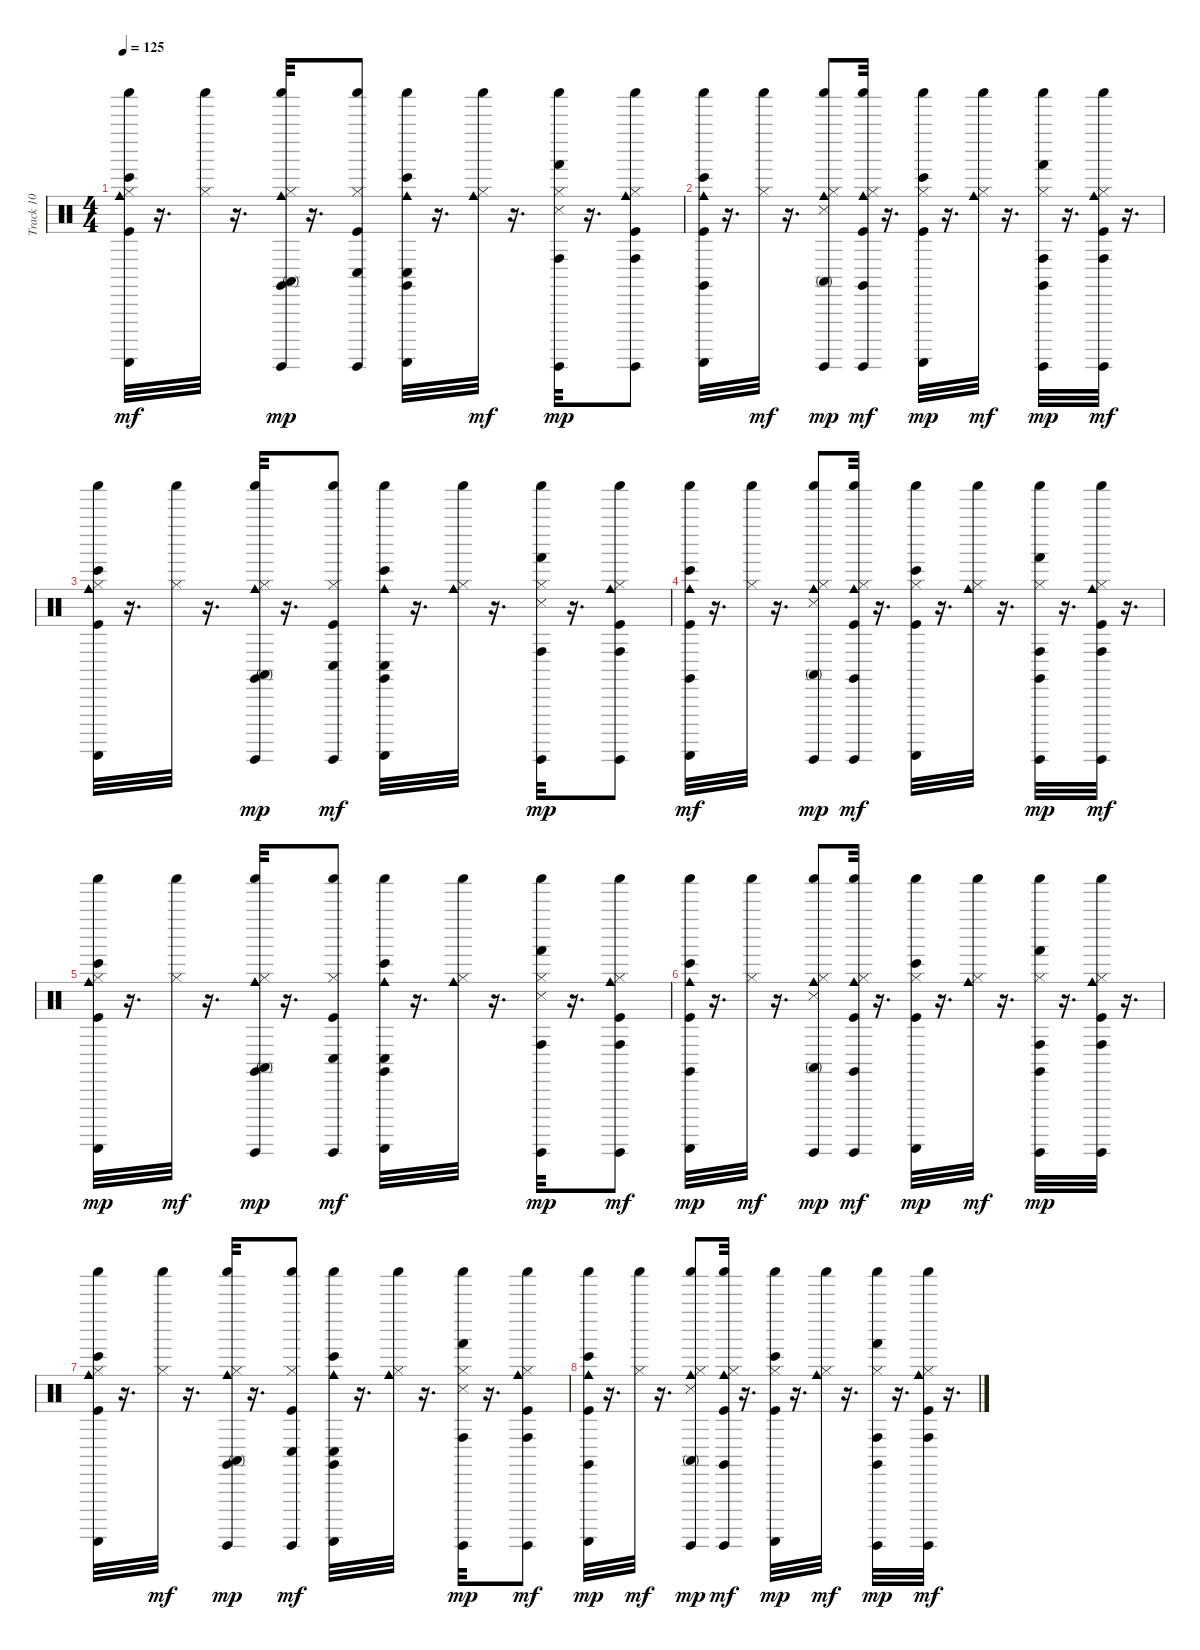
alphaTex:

\track ("Track 10" "Track 10") {instrument percussion}
\staff {score}
\articulation defaults
\ts (4 4)
\tempo 125
\clef neutral
\ks c
("Shaker (hit)" "Bongo High (hit)" "Cowbell medium (hit)" "Guiro (scrap-return)" "Kick (hit)" "Hi-Hat (closed)").32{dy mf} r.16{d} ("Shaker (hit)" "Hi-Hat (closed)").32 r.16{d} ("Shaker (hit)" "Claves (hit)" "Conga high (mute)" "Cowbell medium (hit)" "Guiro (hit)" "Hi-Hat (closed)").32{dy mp} r.16{d} ("Shaker (hit)" "Conga low (hit)" "Guiro (hit)" "Kick (hit)" "Hi-Hat (closed)").8 ("Shaker (hit)" "Claves (hit)" "Conga low (hit)" "Bongo High (hit)" "Cowbell medium (hit)" "Guiro (scrap-return)").32 r.16{d} ("Shaker (hit)" "Cowbell medium (hit)" "Hi-Hat (closed)").32{dy mf} r.16{d} ("Shaker (hit)" "Conga high (hit)" "Hand (hit)" "Guiro (hit)" "Hi-Hat (closed)" "Snare (side stick) 3").32{dy mp} r.16{d} ("Shaker (hit)" "Conga high (hit)" "Cowbell medium (hit)" "Guiro (hit)" "Kick (hit)" "Hi-Hat (closed)").8 |
("Shaker (hit)" "Claves (hit)" "Bongo High (hit)" "Cowbell medium (hit)" "Guiro (scrap-return)" "Kick (hit)").32 r.16{d} ("Shaker (hit)" "Hi-Hat (closed)").32{dy mf} r.16{d} ("Shaker (hit)" "Conga high (mute)" "Cowbell medium (hit)" "Guiro (hit)" "Hi-Hat (closed)" "Snare (side stick) 3").8{dy mp} ("Shaker (hit)" "Claves (hit)" "Cowbell medium (hit)" "Guiro (hit)" "Kick (hit)" "Hi-Hat (closed)").32{dy mf} r.16{d} ("Shaker (hit)" "Bongo High (hit)" "Guiro (scrap-return)" "Kick (hit)" "Hi-Hat (closed)").32{dy mp} r.16{d} ("Shaker (hit)" "Cowbell medium (hit)" "Hi-Hat (closed)").32{dy mf} r.16{d} ("Shaker (hit)" "Claves (hit)" "Conga high (hit)" "Hand (hit)" "Guiro (hit)" "Hi-Hat (closed)").32{dy mp} r.16{d} ("Shaker (hit)" "Conga high (hit)" "Cowbell medium (hit)" "Guiro (hit)" "Kick (hit)" "Hi-Hat (closed)").32{dy mf} r.16{d} |
("Shaker (hit)" "Bongo High (hit)" "Cowbell medium (hit)" "Guiro (scrap-return)" "Kick (hit)" "Hi-Hat (closed)").32 r.16{d} ("Shaker (hit)" "Hi-Hat (closed)").32 r.16{d} ("Shaker (hit)" "Claves (hit)" "Conga high (mute)" "Cowbell medium (hit)" "Guiro (hit)" "Hi-Hat (closed)").32{dy mp} r.16{d} ("Shaker (hit)" "Conga low (hit)" "Guiro (hit)" "Kick (hit)" "Hi-Hat (closed)").8{dy mf} ("Shaker (hit)" "Claves (hit)" "Conga low (hit)" "Bongo High (hit)" "Cowbell medium (hit)" "Guiro (scrap-return)").32 r.16{d} ("Shaker (hit)" "Cowbell medium (hit)" "Hi-Hat (closed)").32 r.16{d} ("Shaker (hit)" "Conga high (hit)" "Hand (hit)" "Guiro (hit)" "Hi-Hat (closed)" "Snare (side stick) 3").32{dy mp} r.16{d} ("Shaker (hit)" "Conga high (hit)" "Cowbell medium (hit)" "Guiro (hit)" "Kick (hit)" "Hi-Hat (closed)").8 |
("Shaker (hit)" "Claves (hit)" "Bongo High (hit)" "Cowbell medium (hit)" "Guiro (scrap-return)" "Kick (hit)").32{dy mf} r.16{d} ("Shaker (hit)" "Hi-Hat (closed)").32 r.16{d} ("Shaker (hit)" "Conga high (mute)" "Cowbell medium (hit)" "Guiro (hit)" "Hi-Hat (closed)" "Snare (side stick) 3").8{dy mp} ("Shaker (hit)" "Claves (hit)" "Cowbell medium (hit)" "Guiro (hit)" "Kick (hit)" "Hi-Hat (closed)").32{dy mf} r.16{d} ("Shaker (hit)" "Bongo High (hit)" "Guiro (scrap-return)" "Kick (hit)" "Hi-Hat (closed)").32 r.16{d} ("Shaker (hit)" "Cowbell medium (hit)" "Hi-Hat (closed)").32 r.16{d} ("Shaker (hit)" "Claves (hit)" "Conga high (hit)" "Hand (hit)" "Guiro (hit)" "Hi-Hat (closed)").32{dy mp} r.16{d} ("Shaker (hit)" "Conga high (hit)" "Cowbell medium (hit)" "Guiro (hit)" "Kick (hit)" "Hi-Hat (closed)").32{dy mf} r.16{d} |
("Shaker (hit)" "Bongo High (hit)" "Cowbell medium (hit)" "Guiro (scrap-return)" "Kick (hit)" "Hi-Hat (closed)").32{dy mp} r.16{d} ("Shaker (hit)" "Hi-Hat (closed)").32{dy mf} r.16{d} ("Shaker (hit)" "Claves (hit)" "Conga high (mute)" "Cowbell medium (hit)" "Guiro (hit)" "Hi-Hat (closed)").32{dy mp} r.16{d} ("Shaker (hit)" "Conga low (hit)" "Guiro (hit)" "Kick (hit)" "Hi-Hat (closed)").8{dy mf} ("Shaker (hit)" "Claves (hit)" "Conga low (hit)" "Bongo High (hit)" "Cowbell medium (hit)" "Guiro (scrap-return)").32 r.16{d} ("Shaker (hit)" "Cowbell medium (hit)" "Hi-Hat (closed)").32 r.16{d} ("Shaker (hit)" "Conga high (hit)" "Hand (hit)" "Guiro (hit)" "Hi-Hat (closed)" "Snare (side stick) 3").32{dy mp} r.16{d} ("Shaker (hit)" "Conga high (hit)" "Cowbell medium (hit)" "Guiro (hit)" "Kick (hit)" "Hi-Hat (closed)").8{dy mf} |
("Shaker (hit)" "Claves (hit)" "Bongo High (hit)" "Cowbell medium (hit)" "Guiro (scrap-return)" "Kick (hit)").32{dy mp} r.16{d} ("Shaker (hit)" "Hi-Hat (closed)").32{dy mf} r.16{d} ("Shaker (hit)" "Conga high (mute)" "Cowbell medium (hit)" "Guiro (hit)" "Hi-Hat (closed)" "Snare (side stick) 3").8{dy mp} ("Shaker (hit)" "Claves (hit)" "Cowbell medium (hit)" "Guiro (hit)" "Kick (hit)" "Hi-Hat (closed)").32{dy mf} r.16{d} ("Shaker (hit)" "Bongo High (hit)" "Guiro (scrap-return)" "Kick (hit)" "Hi-Hat (closed)").32{dy mp} r.16{d} ("Shaker (hit)" "Cowbell medium (hit)" "Hi-Hat (closed)").32{dy mf} r.16{d} ("Shaker (hit)" "Claves (hit)" "Conga high (hit)" "Hand (hit)" "Guiro (hit)" "Hi-Hat (closed)").32{dy mp} r.16{d} ("Shaker (hit)" "Conga high (hit)" "Cowbell medium (hit)" "Guiro (hit)" "Kick (hit)" "Hi-Hat (closed)").32 r.16{d} |
("Shaker (hit)" "Bongo High (hit)" "Cowbell medium (hit)" "Guiro (scrap-return)" "Kick (hit)" "Hi-Hat (closed)").32 r.16{d} ("Shaker (hit)" "Hi-Hat (closed)").32{dy mf} r.16{d} ("Shaker (hit)" "Claves (hit)" "Conga high (mute)" "Cowbell medium (hit)" "Guiro (hit)" "Hi-Hat (closed)").32{dy mp} r.16{d} ("Shaker (hit)" "Conga low (hit)" "Guiro (hit)" "Kick (hit)" "Hi-Hat (closed)").8{dy mf} ("Shaker (hit)" "Claves (hit)" "Conga low (hit)" "Bongo High (hit)" "Cowbell medium (hit)" "Guiro (scrap-return)").32 r.16{d} ("Shaker (hit)" "Cowbell medium (hit)" "Hi-Hat (closed)").32 r.16{d} ("Shaker (hit)" "Conga high (hit)" "Hand (hit)" "Guiro (hit)" "Hi-Hat (closed)" "Snare (side stick) 3").32{dy mp} r.16{d} ("Shaker (hit)" "Conga high (hit)" "Cowbell medium (hit)" "Guiro (hit)" "Kick (hit)" "Hi-Hat (closed)").8{dy mf} |
("Shaker (hit)" "Claves (hit)" "Bongo High (hit)" "Cowbell medium (hit)" "Guiro (scrap-return)" "Kick (hit)").32{dy mp} r.16{d} ("Shaker (hit)" "Hi-Hat (closed)").32{dy mf} r.16{d} ("Shaker (hit)" "Conga high (mute)" "Cowbell medium (hit)" "Guiro (hit)" "Hi-Hat (closed)" "Snare (side stick) 3").8{dy mp} ("Shaker (hit)" "Claves (hit)" "Cowbell medium (hit)" "Guiro (hit)" "Kick (hit)" "Hi-Hat (closed)").32{dy mf} r.16{d} ("Shaker (hit)" "Bongo High (hit)" "Guiro (scrap-return)" "Kick (hit)" "Hi-Hat (closed)").32{dy mp} r.16{d} ("Shaker (hit)" "Cowbell medium (hit)" "Hi-Hat (closed)").32{dy mf} r.16{d} ("Shaker (hit)" "Claves (hit)" "Conga high (hit)" "Hand (hit)" "Guiro (hit)" "Hi-Hat (closed)").32{dy mp} r.16{d} ("Shaker (hit)" "Conga high (hit)" "Cowbell medium (hit)" "Guiro (hit)" "Kick (hit)" "Hi-Hat (closed)").32{dy mf} r.16{d}
